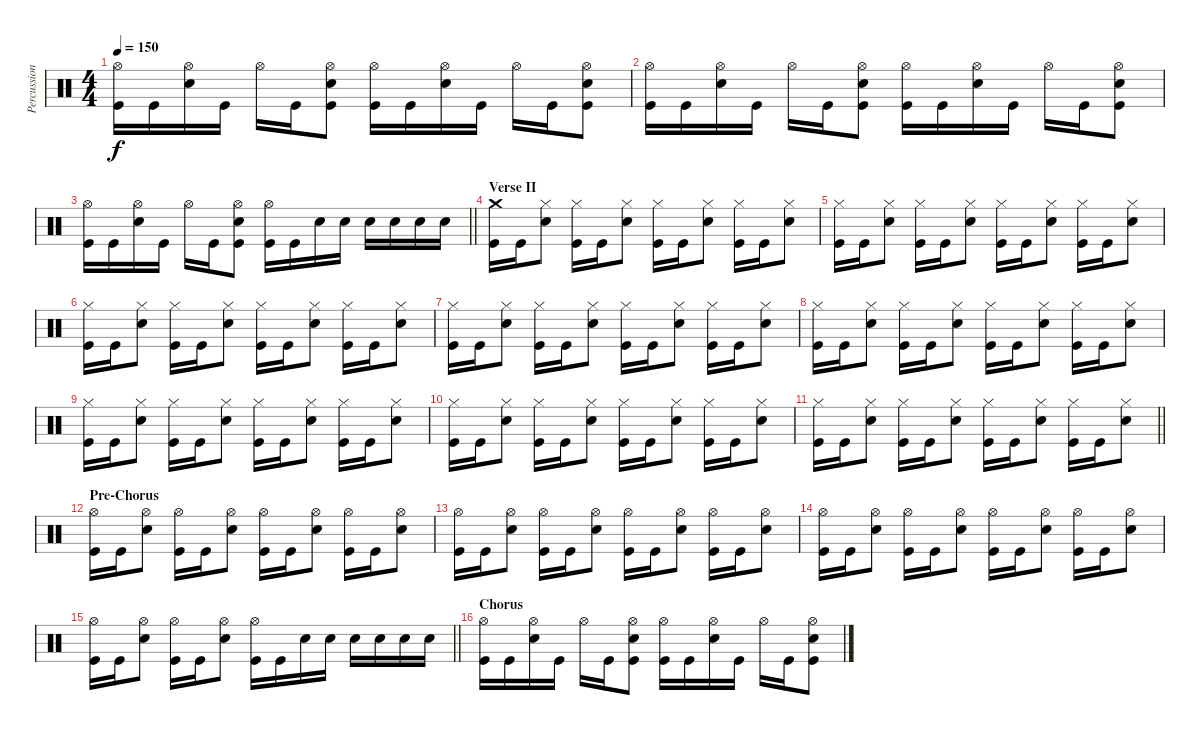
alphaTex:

\track ("Percussion" "Percussion") {instrument percussion}
\staff {score}
\articulation defaults
\ts (4 4)
\tempo 150
\clef neutral
\ks c
("Hi-Hat (open)" "Kick (hit)").16{dy f} "Kick (hit)".16 ("Hi-Hat (open)" "Electric Snare (hit)").16 "Kick (hit)".16 "Hi-Hat (open)".16 "Kick (hit)".16 ("Hi-Hat (open)" "Electric Snare (hit)" "Kick (hit)").8 ("Hi-Hat (open)" "Kick (hit)").16 "Kick (hit)".16 ("Hi-Hat (open)" "Electric Snare (hit)").16 "Kick (hit)".16 "Hi-Hat (open)".16 "Kick (hit)".16 ("Hi-Hat (open)" "Electric Snare (hit)" "Kick (hit)").8 |
("Hi-Hat (open)" "Kick (hit)").16 "Kick (hit)".16 ("Hi-Hat (open)" "Electric Snare (hit)").16 "Kick (hit)".16 "Hi-Hat (open)".16 "Kick (hit)".16 ("Hi-Hat (open)" "Electric Snare (hit)" "Kick (hit)").8 ("Hi-Hat (open)" "Kick (hit)").16 "Kick (hit)".16 ("Hi-Hat (open)" "Electric Snare (hit)").16 "Kick (hit)".16 "Hi-Hat (open)".16 "Kick (hit)".16 ("Hi-Hat (open)" "Electric Snare (hit)" "Kick (hit)").8 |
\barLineRight lightlight
("Hi-Hat (open)" "Kick (hit)").16 "Kick (hit)".16 ("Hi-Hat (open)" "Electric Snare (hit)").16 "Kick (hit)".16 "Hi-Hat (open)".16 "Kick (hit)".16 ("Hi-Hat (open)" "Electric Snare (hit)" "Kick (hit)").8 ("Hi-Hat (open)" "Kick (hit)").16 "Kick (hit)".16 "Electric Snare (hit)".16 "Electric Snare (hit)".16 "Electric Snare (hit)".16 "Electric Snare (hit)".16 "Electric Snare (hit)".16 "Electric Snare (hit)".16 |
\section ("" "Verse II")
("Crash medium (hit)" "Kick (hit)").16 "Kick (hit)".16 ("Hi-Hat (closed)" "Electric Snare (hit)").8 ("Hi-Hat (closed)" "Kick (hit)").16 "Kick (hit)".16 ("Hi-Hat (closed)" "Electric Snare (hit)").8 ("Hi-Hat (closed)" "Kick (hit)").16 "Kick (hit)".16 ("Hi-Hat (closed)" "Electric Snare (hit)").8 ("Hi-Hat (closed)" "Kick (hit)").16 "Kick (hit)".16 ("Hi-Hat (closed)" "Electric Snare (hit)").8 |
("Hi-Hat (closed)" "Kick (hit)").16 "Kick (hit)".16 ("Hi-Hat (closed)" "Electric Snare (hit)").8 ("Hi-Hat (closed)" "Kick (hit)").16 "Kick (hit)".16 ("Hi-Hat (closed)" "Electric Snare (hit)").8 ("Hi-Hat (closed)" "Kick (hit)").16 "Kick (hit)".16 ("Hi-Hat (closed)" "Electric Snare (hit)").8 ("Hi-Hat (closed)" "Kick (hit)").16 "Kick (hit)".16 ("Hi-Hat (closed)" "Electric Snare (hit)").8 |
("Hi-Hat (closed)" "Kick (hit)").16 "Kick (hit)".16 ("Hi-Hat (closed)" "Electric Snare (hit)").8 ("Hi-Hat (closed)" "Kick (hit)").16 "Kick (hit)".16 ("Hi-Hat (closed)" "Electric Snare (hit)").8 ("Hi-Hat (closed)" "Kick (hit)").16 "Kick (hit)".16 ("Hi-Hat (closed)" "Electric Snare (hit)").8 ("Hi-Hat (closed)" "Kick (hit)").16 "Kick (hit)".16 ("Hi-Hat (closed)" "Electric Snare (hit)").8 |
("Hi-Hat (closed)" "Kick (hit)").16 "Kick (hit)".16 ("Hi-Hat (closed)" "Electric Snare (hit)").8 ("Hi-Hat (closed)" "Kick (hit)").16 "Kick (hit)".16 ("Hi-Hat (closed)" "Electric Snare (hit)").8 ("Hi-Hat (closed)" "Kick (hit)").16 "Kick (hit)".16 ("Hi-Hat (closed)" "Electric Snare (hit)").8 ("Hi-Hat (closed)" "Kick (hit)").16 "Kick (hit)".16 ("Hi-Hat (closed)" "Electric Snare (hit)").8 |
("Hi-Hat (closed)" "Kick (hit)").16 "Kick (hit)".16 ("Hi-Hat (closed)" "Electric Snare (hit)").8 ("Hi-Hat (closed)" "Kick (hit)").16 "Kick (hit)".16 ("Hi-Hat (closed)" "Electric Snare (hit)").8 ("Hi-Hat (closed)" "Kick (hit)").16 "Kick (hit)".16 ("Hi-Hat (closed)" "Electric Snare (hit)").8 ("Hi-Hat (closed)" "Kick (hit)").16 "Kick (hit)".16 ("Hi-Hat (closed)" "Electric Snare (hit)").8 |
("Hi-Hat (closed)" "Kick (hit)").16 "Kick (hit)".16 ("Hi-Hat (closed)" "Electric Snare (hit)").8 ("Hi-Hat (closed)" "Kick (hit)").16 "Kick (hit)".16 ("Hi-Hat (closed)" "Electric Snare (hit)").8 ("Hi-Hat (closed)" "Kick (hit)").16 "Kick (hit)".16 ("Hi-Hat (closed)" "Electric Snare (hit)").8 ("Hi-Hat (closed)" "Kick (hit)").16 "Kick (hit)".16 ("Hi-Hat (closed)" "Electric Snare (hit)").8 |
("Hi-Hat (closed)" "Kick (hit)").16 "Kick (hit)".16 ("Hi-Hat (closed)" "Electric Snare (hit)").8 ("Hi-Hat (closed)" "Kick (hit)").16 "Kick (hit)".16 ("Hi-Hat (closed)" "Electric Snare (hit)").8 ("Hi-Hat (closed)" "Kick (hit)").16 "Kick (hit)".16 ("Hi-Hat (closed)" "Electric Snare (hit)").8 ("Hi-Hat (closed)" "Kick (hit)").16 "Kick (hit)".16 ("Hi-Hat (closed)" "Electric Snare (hit)").8 |
\barLineRight lightlight
("Hi-Hat (closed)" "Kick (hit)").16 "Kick (hit)".16 ("Hi-Hat (closed)" "Electric Snare (hit)").8 ("Hi-Hat (closed)" "Kick (hit)").16 "Kick (hit)".16 ("Hi-Hat (closed)" "Electric Snare (hit)").8 ("Hi-Hat (closed)" "Kick (hit)").16 "Kick (hit)".16 ("Hi-Hat (closed)" "Electric Snare (hit)").8 ("Hi-Hat (closed)" "Kick (hit)").16 "Kick (hit)".16 ("Hi-Hat (closed)" "Electric Snare (hit)").8 |
\section ("" "Pre-Chorus")
("Hi-Hat (open)" "Kick (hit)").16 "Kick (hit)".16 ("Hi-Hat (open)" "Electric Snare (hit)").8 ("Hi-Hat (open)" "Kick (hit)").16 "Kick (hit)".16 ("Hi-Hat (open)" "Electric Snare (hit)").8 ("Hi-Hat (open)" "Kick (hit)").16 "Kick (hit)".16 ("Hi-Hat (open)" "Electric Snare (hit)").8 ("Hi-Hat (open)" "Kick (hit)").16 "Kick (hit)".16 ("Hi-Hat (open)" "Electric Snare (hit)").8 |
("Hi-Hat (open)" "Kick (hit)").16 "Kick (hit)".16 ("Hi-Hat (open)" "Electric Snare (hit)").8 ("Hi-Hat (open)" "Kick (hit)").16 "Kick (hit)".16 ("Hi-Hat (open)" "Electric Snare (hit)").8 ("Hi-Hat (open)" "Kick (hit)").16 "Kick (hit)".16 ("Hi-Hat (open)" "Electric Snare (hit)").8 ("Hi-Hat (open)" "Kick (hit)").16 "Kick (hit)".16 ("Hi-Hat (open)" "Electric Snare (hit)").8 |
("Hi-Hat (open)" "Kick (hit)").16 "Kick (hit)".16 ("Hi-Hat (open)" "Electric Snare (hit)").8 ("Hi-Hat (open)" "Kick (hit)").16 "Kick (hit)".16 ("Hi-Hat (open)" "Electric Snare (hit)").8 ("Hi-Hat (open)" "Kick (hit)").16 "Kick (hit)".16 ("Hi-Hat (open)" "Electric Snare (hit)").8 ("Hi-Hat (open)" "Kick (hit)").16 "Kick (hit)".16 ("Hi-Hat (open)" "Electric Snare (hit)").8 |
\barLineRight lightlight
("Hi-Hat (open)" "Kick (hit)").16 "Kick (hit)".16 ("Hi-Hat (open)" "Electric Snare (hit)").8 ("Hi-Hat (open)" "Kick (hit)").16 "Kick (hit)".16 ("Hi-Hat (open)" "Electric Snare (hit)").8 ("Hi-Hat (open)" "Kick (hit)").16 "Kick (hit)".16 "Electric Snare (hit)".16 "Electric Snare (hit)".16 "Electric Snare (hit)".16 "Electric Snare (hit)".16 "Electric Snare (hit)".16 "Electric Snare (hit)".16 |
\section ("" "Chorus")
("Hi-Hat (open)" "Kick (hit)").16 "Kick (hit)".16 ("Hi-Hat (open)" "Electric Snare (hit)").16 "Kick (hit)".16 "Hi-Hat (open)".16 "Kick (hit)".16 ("Hi-Hat (open)" "Electric Snare (hit)" "Kick (hit)").8 ("Hi-Hat (open)" "Kick (hit)").16 "Kick (hit)".16 ("Hi-Hat (open)" "Electric Snare (hit)").16 "Kick (hit)".16 "Hi-Hat (open)".16 "Kick (hit)".16 ("Hi-Hat (open)" "Electric Snare (hit)" "Kick (hit)").8
